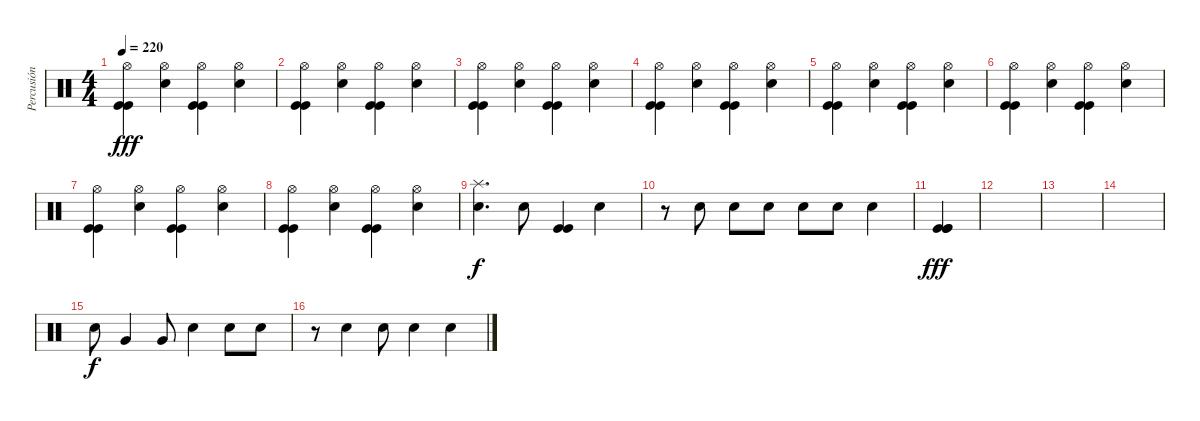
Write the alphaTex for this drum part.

\track ("Percusión" "Percusión") {instrument percussion}
\staff {score}
\articulation defaults
\ts (4 4)
\tempo 220
\clef neutral
\ks c
("Hi-Hat (open)" "Kick (hit)" "Kick (hit)").4{dy fff} ("Hi-Hat (open)" "Snare (hit) 2").4 ("Hi-Hat (open)" "Kick (hit)" "Kick (hit)").4 ("Hi-Hat (open)" "Snare (hit) 2").4 |
("Hi-Hat (open)" "Kick (hit)" "Kick (hit)").4 ("Hi-Hat (open)" "Snare (hit) 2").4 ("Hi-Hat (open)" "Kick (hit)" "Kick (hit)").4 ("Hi-Hat (open)" "Snare (hit) 2").4 |
("Hi-Hat (open)" "Kick (hit)" "Kick (hit)").4 ("Hi-Hat (open)" "Snare (hit) 2").4 ("Hi-Hat (open)" "Kick (hit)" "Kick (hit)").4 ("Hi-Hat (open)" "Snare (hit) 2").4 |
("Hi-Hat (open)" "Kick (hit)" "Kick (hit)").4 ("Hi-Hat (open)" "Snare (hit) 2").4 ("Hi-Hat (open)" "Kick (hit)" "Kick (hit)").4 ("Hi-Hat (open)" "Snare (hit) 2").4 |
("Hi-Hat (open)" "Kick (hit)" "Kick (hit)").4 ("Hi-Hat (open)" "Snare (hit) 2").4 ("Hi-Hat (open)" "Kick (hit)" "Kick (hit)").4 ("Hi-Hat (open)" "Snare (hit) 2").4 |
("Hi-Hat (open)" "Kick (hit)" "Kick (hit)").4 ("Hi-Hat (open)" "Snare (hit) 2").4 ("Hi-Hat (open)" "Kick (hit)" "Kick (hit)").4 ("Hi-Hat (open)" "Snare (hit) 2").4 |
("Hi-Hat (open)" "Kick (hit)" "Kick (hit)").4 ("Hi-Hat (open)" "Snare (hit) 2").4 ("Hi-Hat (open)" "Kick (hit)" "Kick (hit)").4 ("Hi-Hat (open)" "Snare (hit) 2").4 |
("Hi-Hat (open)" "Kick (hit)" "Kick (hit)").4 ("Hi-Hat (open)" "Snare (hit) 2").4 ("Hi-Hat (open)" "Kick (hit)" "Kick (hit)").4 ("Hi-Hat (open)" "Snare (hit) 2").4 |
("Splash (hit)" "Snare (hit) 2").4{d dy f} "Snare (hit) 2".8 ("Kick (hit)" "Kick (hit)").4 "Snare (hit) 2".4 |
r.8 "Snare (hit) 2".8 "Snare (hit) 2".8 "Snare (hit) 2".8 "Snare (hit) 2".8 "Snare (hit) 2".8 "Snare (hit) 2".4 |
("Kick (hit)" "Kick (hit)" "Kick (hit)").4{dy fff} |
|
|
|
"Snare (hit) 2".8{dy f} "Very Low Tom (hit)".4 "Very Low Tom (hit)".8 "Snare (hit) 2".4 "Snare (hit) 2".8 "Snare (hit) 2".8 |
r.8 "Snare (hit) 2".4 "Snare (hit) 2".8 "Snare (hit) 2".4 "Snare (hit) 2".4
